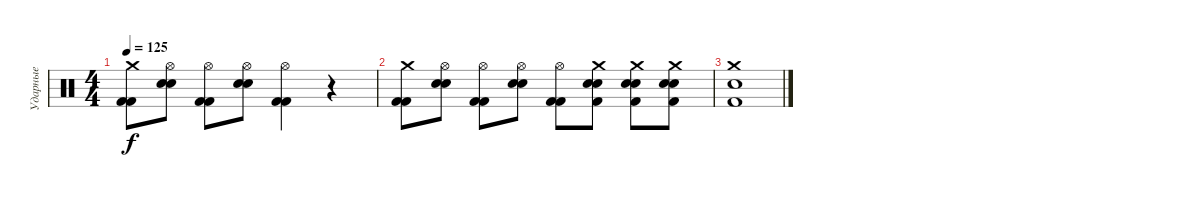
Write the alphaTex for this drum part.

\track ("Ударные" "Ударные") {instrument percussion}
\staff {score}
\articulation defaults
\ts (4 4)
\tempo 125
\clef neutral
\ks c
("Crash medium (hit)" "Kick (hit) 2" "Kick (hit) 2").8{dy f} ("Hi-Hat (open)" "Electric Snare (hit)" "Electric Snare (hit)").8 ("Hi-Hat (open)" "Kick (hit) 2" "Kick (hit) 2").8 ("Hi-Hat (open)" "Electric Snare (hit)" "Electric Snare (hit)").8 ("Hi-Hat (open)" "Kick (hit) 2" "Kick (hit) 2").4 r.4 |
("Crash medium (hit)" "Kick (hit) 2" "Kick (hit) 2").8 ("Hi-Hat (open)" "Electric Snare (hit)" "Electric Snare (hit)").8 ("Hi-Hat (open)" "Kick (hit) 2" "Kick (hit) 2").8 ("Hi-Hat (open)" "Electric Snare (hit)" "Electric Snare (hit)").8 ("Hi-Hat (open)" "Kick (hit) 2" "Kick (hit) 2").8 ("Crash medium (hit)" "Electric Snare (hit)" "Electric Snare (hit)" "Kick (hit) 2").8 ("Crash medium (hit)" "Electric Snare (hit)" "Electric Snare (hit)" "Kick (hit) 2").8 ("Crash medium (hit)" "Electric Snare (hit)" "Electric Snare (hit)" "Kick (hit) 2").8 |
("Crash medium (hit)" "Electric Snare (hit)" "Kick (hit) 2").1
